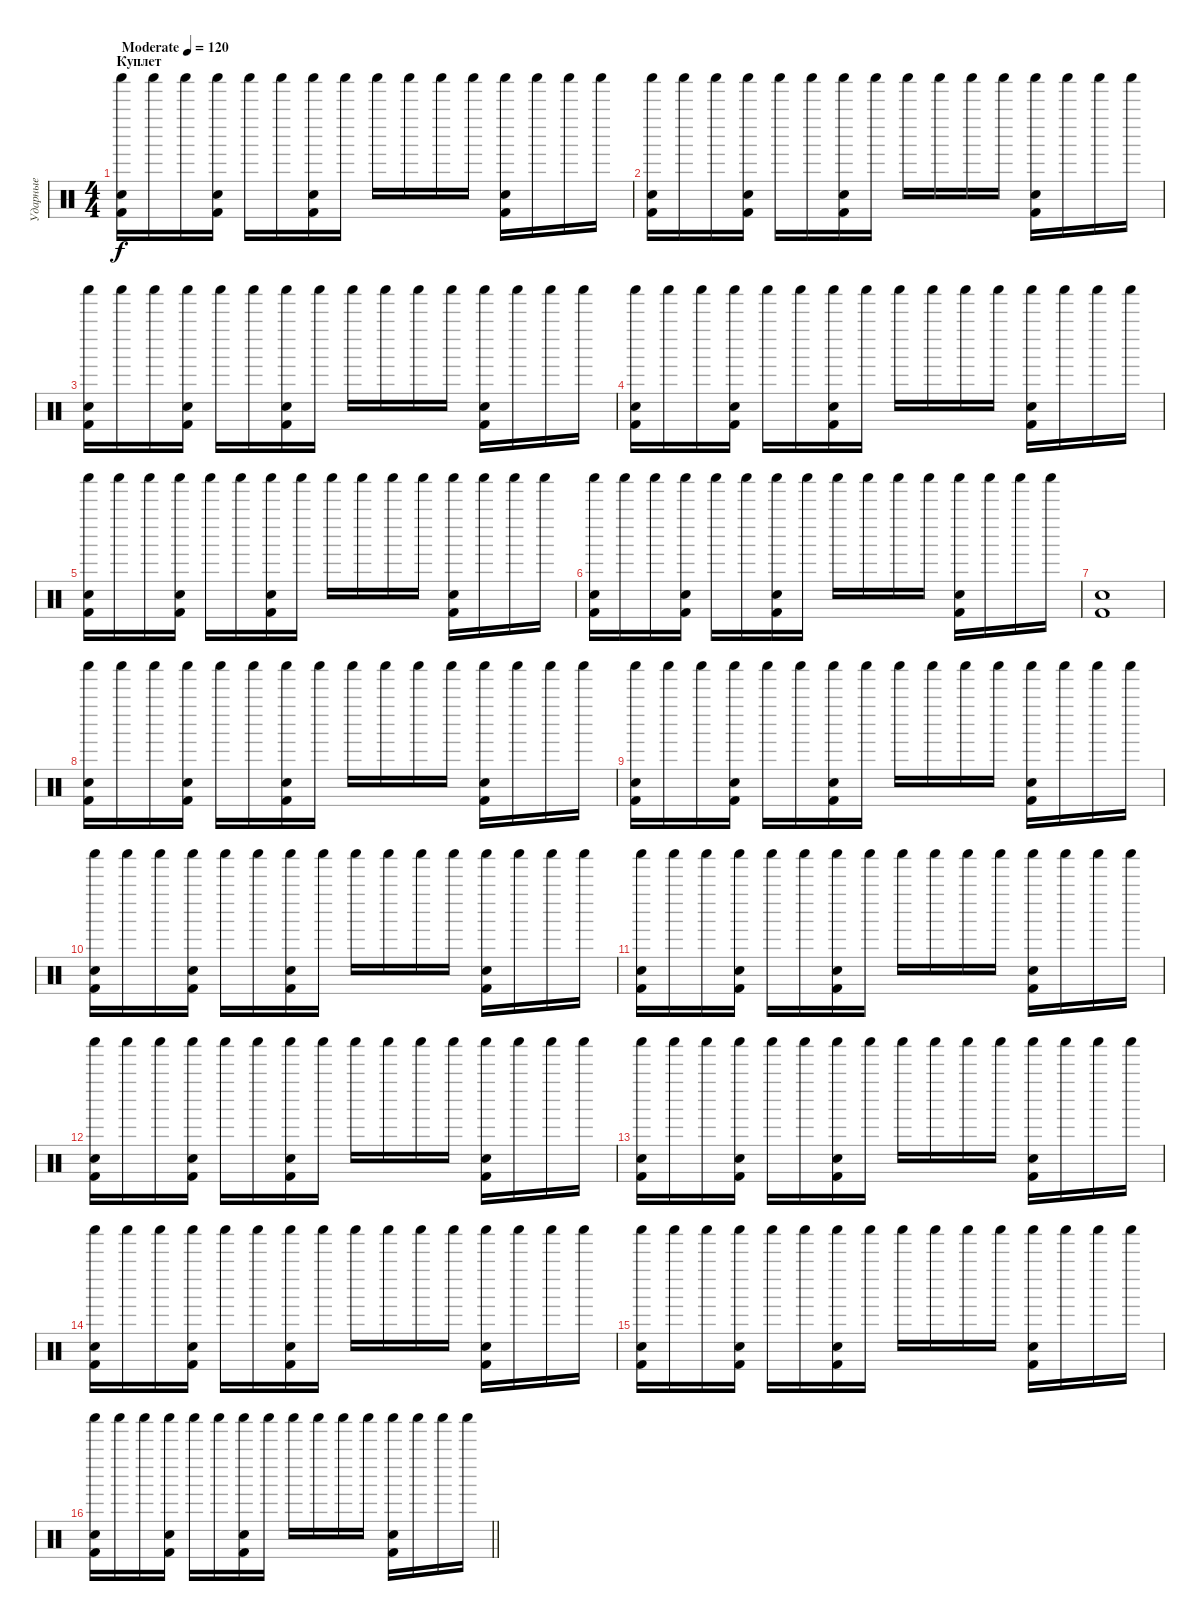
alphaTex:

\track ("Ударные" "Ударные") {instrument percussion}
\staff {score}
\articulation defaults
\ts (4 4)
\section ("" "Куплет")
\tempo (120 "Moderate")
\clef neutral
\ks c
("Electric Snare (hit)" "Kick (hit) 2" "Shaker (hit)").16{dy f} "Shaker (hit)".16 "Shaker (hit)".16 ("Electric Snare (hit)" "Kick (hit) 2" "Shaker (hit)").16 "Shaker (hit)".16 "Shaker (hit)".16 ("Electric Snare (hit)" "Kick (hit) 2" "Shaker (hit)").16 "Shaker (hit)".16 "Shaker (hit)".16 "Shaker (hit)".16 "Shaker (hit)".16 "Shaker (hit)".16 ("Electric Snare (hit)" "Kick (hit) 2" "Shaker (hit)").16 "Shaker (hit)".16 "Shaker (hit)".16 "Shaker (hit)".16 |
("Electric Snare (hit)" "Kick (hit) 2" "Shaker (hit)").16 "Shaker (hit)".16 "Shaker (hit)".16 ("Electric Snare (hit)" "Kick (hit) 2" "Shaker (hit)").16 "Shaker (hit)".16 "Shaker (hit)".16 ("Electric Snare (hit)" "Kick (hit) 2" "Shaker (hit)").16 "Shaker (hit)".16 "Shaker (hit)".16 "Shaker (hit)".16 "Shaker (hit)".16 "Shaker (hit)".16 ("Electric Snare (hit)" "Kick (hit) 2" "Shaker (hit)").16 "Shaker (hit)".16 "Shaker (hit)".16 "Shaker (hit)".16 |
("Electric Snare (hit)" "Kick (hit) 2" "Shaker (hit)").16 "Shaker (hit)".16 "Shaker (hit)".16 ("Electric Snare (hit)" "Kick (hit) 2" "Shaker (hit)").16 "Shaker (hit)".16 "Shaker (hit)".16 ("Electric Snare (hit)" "Kick (hit) 2" "Shaker (hit)").16 "Shaker (hit)".16 "Shaker (hit)".16 "Shaker (hit)".16 "Shaker (hit)".16 "Shaker (hit)".16 ("Electric Snare (hit)" "Kick (hit) 2" "Shaker (hit)").16 "Shaker (hit)".16 "Shaker (hit)".16 "Shaker (hit)".16 |
("Electric Snare (hit)" "Kick (hit) 2" "Shaker (hit)").16 "Shaker (hit)".16 "Shaker (hit)".16 ("Electric Snare (hit)" "Kick (hit) 2" "Shaker (hit)").16 "Shaker (hit)".16 "Shaker (hit)".16 ("Electric Snare (hit)" "Kick (hit) 2" "Shaker (hit)").16 "Shaker (hit)".16 "Shaker (hit)".16 "Shaker (hit)".16 "Shaker (hit)".16 "Shaker (hit)".16 ("Electric Snare (hit)" "Kick (hit) 2" "Shaker (hit)").16 "Shaker (hit)".16 "Shaker (hit)".16 "Shaker (hit)".16 |
("Electric Snare (hit)" "Kick (hit) 2" "Shaker (hit)").16 "Shaker (hit)".16 "Shaker (hit)".16 ("Electric Snare (hit)" "Kick (hit) 2" "Shaker (hit)").16 "Shaker (hit)".16 "Shaker (hit)".16 ("Electric Snare (hit)" "Kick (hit) 2" "Shaker (hit)").16 "Shaker (hit)".16 "Shaker (hit)".16 "Shaker (hit)".16 "Shaker (hit)".16 "Shaker (hit)".16 ("Electric Snare (hit)" "Kick (hit) 2" "Shaker (hit)").16 "Shaker (hit)".16 "Shaker (hit)".16 "Shaker (hit)".16 |
("Electric Snare (hit)" "Kick (hit) 2" "Shaker (hit)").16 "Shaker (hit)".16 "Shaker (hit)".16 ("Electric Snare (hit)" "Kick (hit) 2" "Shaker (hit)").16 "Shaker (hit)".16 "Shaker (hit)".16 ("Electric Snare (hit)" "Kick (hit) 2" "Shaker (hit)").16 "Shaker (hit)".16 "Shaker (hit)".16 "Shaker (hit)".16 "Shaker (hit)".16 "Shaker (hit)".16 ("Electric Snare (hit)" "Kick (hit) 2" "Shaker (hit)").16 "Shaker (hit)".16 "Shaker (hit)".16 "Shaker (hit)".16 |
("Kick (hit) 2" "Electric Snare (hit)").1 |
("Electric Snare (hit)" "Kick (hit) 2" "Shaker (hit)").16 "Shaker (hit)".16 "Shaker (hit)".16 ("Electric Snare (hit)" "Kick (hit) 2" "Shaker (hit)").16 "Shaker (hit)".16 "Shaker (hit)".16 ("Electric Snare (hit)" "Kick (hit) 2" "Shaker (hit)").16 "Shaker (hit)".16 "Shaker (hit)".16 "Shaker (hit)".16 "Shaker (hit)".16 "Shaker (hit)".16 ("Electric Snare (hit)" "Kick (hit) 2" "Shaker (hit)").16 "Shaker (hit)".16 "Shaker (hit)".16 "Shaker (hit)".16 |
("Electric Snare (hit)" "Kick (hit) 2" "Shaker (hit)").16 "Shaker (hit)".16 "Shaker (hit)".16 ("Electric Snare (hit)" "Kick (hit) 2" "Shaker (hit)").16 "Shaker (hit)".16 "Shaker (hit)".16 ("Electric Snare (hit)" "Kick (hit) 2" "Shaker (hit)").16 "Shaker (hit)".16 "Shaker (hit)".16 "Shaker (hit)".16 "Shaker (hit)".16 "Shaker (hit)".16 ("Electric Snare (hit)" "Kick (hit) 2" "Shaker (hit)").16 "Shaker (hit)".16 "Shaker (hit)".16 "Shaker (hit)".16 |
("Electric Snare (hit)" "Kick (hit) 2" "Shaker (hit)").16 "Shaker (hit)".16 "Shaker (hit)".16 ("Electric Snare (hit)" "Kick (hit) 2" "Shaker (hit)").16 "Shaker (hit)".16 "Shaker (hit)".16 ("Electric Snare (hit)" "Kick (hit) 2" "Shaker (hit)").16 "Shaker (hit)".16 "Shaker (hit)".16 "Shaker (hit)".16 "Shaker (hit)".16 "Shaker (hit)".16 ("Electric Snare (hit)" "Kick (hit) 2" "Shaker (hit)").16 "Shaker (hit)".16 "Shaker (hit)".16 "Shaker (hit)".16 |
("Electric Snare (hit)" "Kick (hit) 2" "Shaker (hit)").16 "Shaker (hit)".16 "Shaker (hit)".16 ("Electric Snare (hit)" "Kick (hit) 2" "Shaker (hit)").16 "Shaker (hit)".16 "Shaker (hit)".16 ("Electric Snare (hit)" "Kick (hit) 2" "Shaker (hit)").16 "Shaker (hit)".16 "Shaker (hit)".16 "Shaker (hit)".16 "Shaker (hit)".16 "Shaker (hit)".16 ("Electric Snare (hit)" "Kick (hit) 2" "Shaker (hit)").16 "Shaker (hit)".16 "Shaker (hit)".16 "Shaker (hit)".16 |
("Electric Snare (hit)" "Kick (hit) 2" "Shaker (hit)").16 "Shaker (hit)".16 "Shaker (hit)".16 ("Electric Snare (hit)" "Kick (hit) 2" "Shaker (hit)").16 "Shaker (hit)".16 "Shaker (hit)".16 ("Electric Snare (hit)" "Kick (hit) 2" "Shaker (hit)").16 "Shaker (hit)".16 "Shaker (hit)".16 "Shaker (hit)".16 "Shaker (hit)".16 "Shaker (hit)".16 ("Electric Snare (hit)" "Kick (hit) 2" "Shaker (hit)").16 "Shaker (hit)".16 "Shaker (hit)".16 "Shaker (hit)".16 |
("Electric Snare (hit)" "Kick (hit) 2" "Shaker (hit)").16 "Shaker (hit)".16 "Shaker (hit)".16 ("Electric Snare (hit)" "Kick (hit) 2" "Shaker (hit)").16 "Shaker (hit)".16 "Shaker (hit)".16 ("Electric Snare (hit)" "Kick (hit) 2" "Shaker (hit)").16 "Shaker (hit)".16 "Shaker (hit)".16 "Shaker (hit)".16 "Shaker (hit)".16 "Shaker (hit)".16 ("Electric Snare (hit)" "Kick (hit) 2" "Shaker (hit)").16 "Shaker (hit)".16 "Shaker (hit)".16 "Shaker (hit)".16 |
("Electric Snare (hit)" "Kick (hit) 2" "Shaker (hit)").16 "Shaker (hit)".16 "Shaker (hit)".16 ("Electric Snare (hit)" "Kick (hit) 2" "Shaker (hit)").16 "Shaker (hit)".16 "Shaker (hit)".16 ("Electric Snare (hit)" "Kick (hit) 2" "Shaker (hit)").16 "Shaker (hit)".16 "Shaker (hit)".16 "Shaker (hit)".16 "Shaker (hit)".16 "Shaker (hit)".16 ("Electric Snare (hit)" "Kick (hit) 2" "Shaker (hit)").16 "Shaker (hit)".16 "Shaker (hit)".16 "Shaker (hit)".16 |
("Electric Snare (hit)" "Kick (hit) 2" "Shaker (hit)").16 "Shaker (hit)".16 "Shaker (hit)".16 ("Electric Snare (hit)" "Kick (hit) 2" "Shaker (hit)").16 "Shaker (hit)".16 "Shaker (hit)".16 ("Electric Snare (hit)" "Kick (hit) 2" "Shaker (hit)").16 "Shaker (hit)".16 "Shaker (hit)".16 "Shaker (hit)".16 "Shaker (hit)".16 "Shaker (hit)".16 ("Electric Snare (hit)" "Kick (hit) 2" "Shaker (hit)").16 "Shaker (hit)".16 "Shaker (hit)".16 "Shaker (hit)".16 |
\barLineRight lightlight
("Electric Snare (hit)" "Kick (hit) 2" "Shaker (hit)").16 "Shaker (hit)".16 "Shaker (hit)".16 ("Electric Snare (hit)" "Kick (hit) 2" "Shaker (hit)").16 "Shaker (hit)".16 "Shaker (hit)".16 ("Electric Snare (hit)" "Kick (hit) 2" "Shaker (hit)").16 "Shaker (hit)".16 "Shaker (hit)".16 "Shaker (hit)".16 "Shaker (hit)".16 "Shaker (hit)".16 ("Electric Snare (hit)" "Kick (hit) 2" "Shaker (hit)").16 "Shaker (hit)".16 "Shaker (hit)".16 "Shaker (hit)".16
